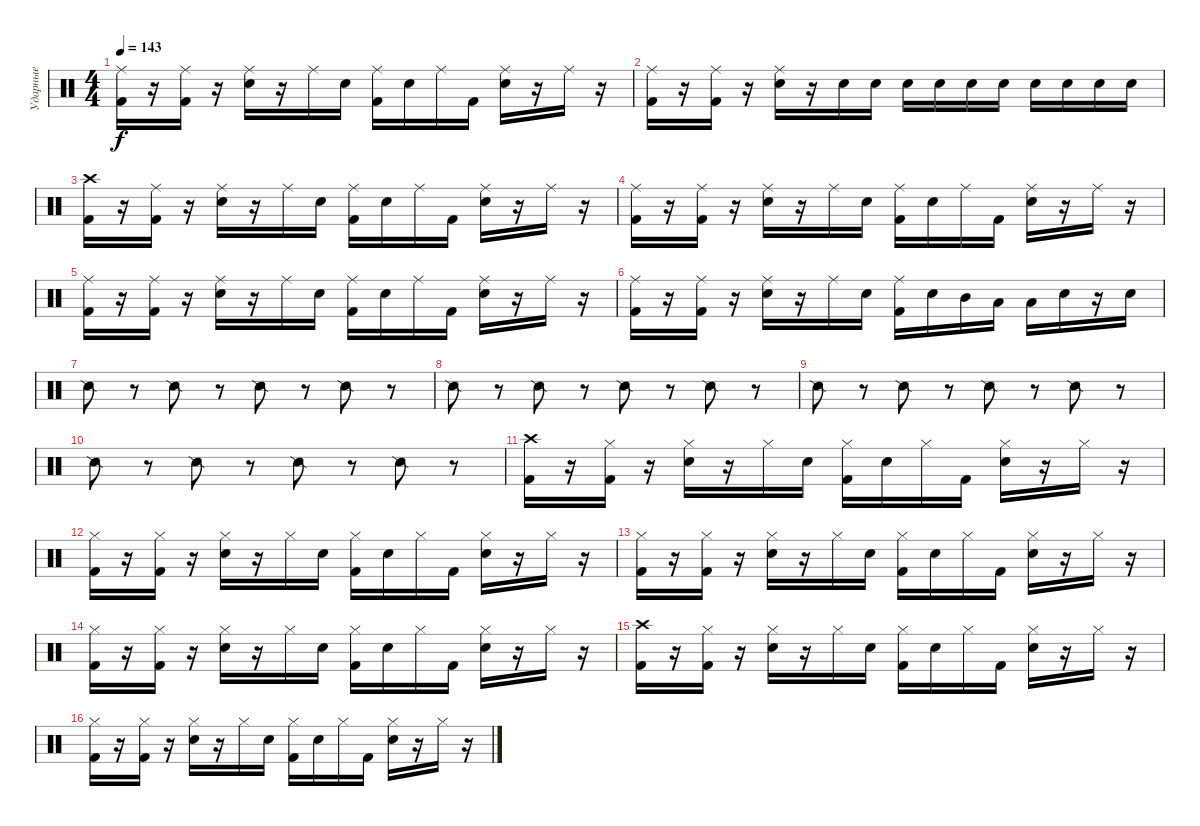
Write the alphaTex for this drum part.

\track ("Ударные" "Ударные") {instrument percussion}
\staff {score}
\articulation defaults
\ts (4 4)
\tempo 143
\clef neutral
\ks c
("Kick (hit) 2" "Ride (middle)").16{dy f} r.16 ("Kick (hit) 2" "Ride (middle)").16 r.16 ("Electric Snare (hit)" "Ride (middle)").16 r.16 "Ride (middle)".16 "Electric Snare (hit)".16 ("Kick (hit) 2" "Ride (middle)").16 "Electric Snare (hit)".16 "Ride (middle)".16 "Kick (hit) 2".16 ("Electric Snare (hit)" "Ride (middle)").16 r.16 "Ride (middle)".16 r.16 |
("Kick (hit) 2" "Ride (middle)").16 r.16 ("Kick (hit) 2" "Ride (middle)").16 r.16 ("Electric Snare (hit)" "Ride (middle)").16 r.16 "Electric Snare (hit)".16 "Electric Snare (hit)".16 "Electric Snare (hit)".16 "Electric Snare (hit)".16 "Electric Snare (hit)".16 "Electric Snare (hit)".16 "Electric Snare (hit)".16 "Electric Snare (hit)".16 "Electric Snare (hit)".16 "Electric Snare (hit)".16 |
("Kick (hit) 2" "Crash high (hit)").16 r.16 ("Kick (hit) 2" "Ride (middle)").16 r.16 ("Electric Snare (hit)" "Ride (middle)").16 r.16 "Ride (middle)".16 "Electric Snare (hit)".16 ("Kick (hit) 2" "Ride (middle)").16 "Electric Snare (hit)".16 "Ride (middle)".16 "Kick (hit) 2".16 ("Electric Snare (hit)" "Ride (middle)").16 r.16 "Ride (middle)".16 r.16 |
("Kick (hit) 2" "Ride (middle)").16 r.16 ("Kick (hit) 2" "Ride (middle)").16 r.16 ("Electric Snare (hit)" "Ride (middle)").16 r.16 "Ride (middle)".16 "Electric Snare (hit)".16 ("Kick (hit) 2" "Ride (middle)").16 "Electric Snare (hit)".16 "Ride (middle)".16 "Kick (hit) 2".16 ("Electric Snare (hit)" "Ride (middle)").16 r.16 "Ride (middle)".16 r.16 |
("Kick (hit) 2" "Ride (middle)").16 r.16 ("Kick (hit) 2" "Ride (middle)").16 r.16 ("Electric Snare (hit)" "Ride (middle)").16 r.16 "Ride (middle)".16 "Electric Snare (hit)".16 ("Kick (hit) 2" "Ride (middle)").16 "Electric Snare (hit)".16 "Ride (middle)".16 "Kick (hit) 2".16 ("Electric Snare (hit)" "Ride (middle)").16 r.16 "Ride (middle)".16 r.16 |
("Kick (hit) 2" "Ride (middle)").16 r.16 ("Kick (hit) 2" "Ride (middle)").16 r.16 ("Electric Snare (hit)" "Ride (middle)").16 r.16 "Ride (middle)".16 "Electric Snare (hit)".16 ("Kick (hit) 2" "Ride (middle)").16 "Electric Snare (hit)".16 "Mid Tom (hit)".16 "Low Tom (hit)".16 "Low Tom (hit)".16 "Electric Snare (hit)".16 r.16 "Electric Snare (hit)".16 |
"Snare (side stick) 2".8 r.8 "Snare (side stick) 2".8 r.8 "Snare (side stick) 2".8 r.8 "Snare (side stick) 2".8 r.8 |
"Snare (side stick) 2".8 r.8 "Snare (side stick) 2".8 r.8 "Snare (side stick) 2".8 r.8 "Snare (side stick) 2".8 r.8 |
"Snare (side stick) 2".8 r.8 "Snare (side stick) 2".8 r.8 "Snare (side stick) 2".8 r.8 "Snare (side stick) 2".8 r.8 |
"Snare (side stick) 2".8 r.8 "Snare (side stick) 2".8 r.8 "Snare (side stick) 2".8 r.8 "Snare (side stick) 2".8 r.8 |
("Kick (hit) 2" "Crash high (hit)").16 r.16 ("Kick (hit) 2" "Hi-Hat (closed)").16 r.16 ("Electric Snare (hit)" "Hi-Hat (closed)").16 r.16 "Hi-Hat (closed)".16 "Electric Snare (hit)".16 ("Kick (hit) 2" "Hi-Hat (closed)").16 "Electric Snare (hit)".16 "Hi-Hat (closed)".16 "Kick (hit) 2".16 ("Electric Snare (hit)" "Hi-Hat (closed)").16 r.16 "Hi-Hat (closed)".16 r.16 |
("Kick (hit) 2" "Hi-Hat (closed)").16 r.16 ("Kick (hit) 2" "Hi-Hat (closed)").16 r.16 ("Electric Snare (hit)" "Hi-Hat (closed)").16 r.16 "Hi-Hat (closed)".16 "Electric Snare (hit)".16 ("Kick (hit) 2" "Hi-Hat (closed)").16 "Electric Snare (hit)".16 "Hi-Hat (closed)".16 "Kick (hit) 2".16 ("Electric Snare (hit)" "Hi-Hat (closed)").16 r.16 "Hi-Hat (closed)".16 r.16 |
("Kick (hit) 2" "Hi-Hat (closed)").16 r.16 ("Kick (hit) 2" "Hi-Hat (closed)").16 r.16 ("Electric Snare (hit)" "Hi-Hat (closed)").16 r.16 "Hi-Hat (closed)".16 "Electric Snare (hit)".16 ("Kick (hit) 2" "Hi-Hat (closed)").16 "Electric Snare (hit)".16 "Hi-Hat (closed)".16 "Kick (hit) 2".16 ("Electric Snare (hit)" "Hi-Hat (closed)").16 r.16 "Hi-Hat (closed)".16 r.16 |
("Kick (hit) 2" "Hi-Hat (closed)").16 r.16 ("Kick (hit) 2" "Hi-Hat (closed)").16 r.16 ("Electric Snare (hit)" "Hi-Hat (closed)").16 r.16 "Hi-Hat (closed)".16 "Electric Snare (hit)".16 ("Kick (hit) 2" "Hi-Hat (closed)").16 "Electric Snare (hit)".16 "Hi-Hat (closed)".16 "Kick (hit) 2".16 ("Electric Snare (hit)" "Hi-Hat (closed)").16 r.16 "Hi-Hat (closed)".16 r.16 |
("Kick (hit) 2" "Crash high (hit)").16 r.16 ("Kick (hit) 2" "Hi-Hat (closed)").16 r.16 ("Electric Snare (hit)" "Hi-Hat (closed)").16 r.16 "Hi-Hat (closed)".16 "Electric Snare (hit)".16 ("Kick (hit) 2" "Hi-Hat (closed)").16 "Electric Snare (hit)".16 "Hi-Hat (closed)".16 "Kick (hit) 2".16 ("Electric Snare (hit)" "Hi-Hat (closed)").16 r.16 "Hi-Hat (closed)".16 r.16 |
("Kick (hit) 2" "Hi-Hat (closed)").16 r.16 ("Kick (hit) 2" "Hi-Hat (closed)").16 r.16 ("Electric Snare (hit)" "Hi-Hat (closed)").16 r.16 "Hi-Hat (closed)".16 "Electric Snare (hit)".16 ("Kick (hit) 2" "Hi-Hat (closed)").16 "Electric Snare (hit)".16 "Hi-Hat (closed)".16 "Kick (hit) 2".16 ("Electric Snare (hit)" "Hi-Hat (closed)").16 r.16 "Hi-Hat (closed)".16 r.16
